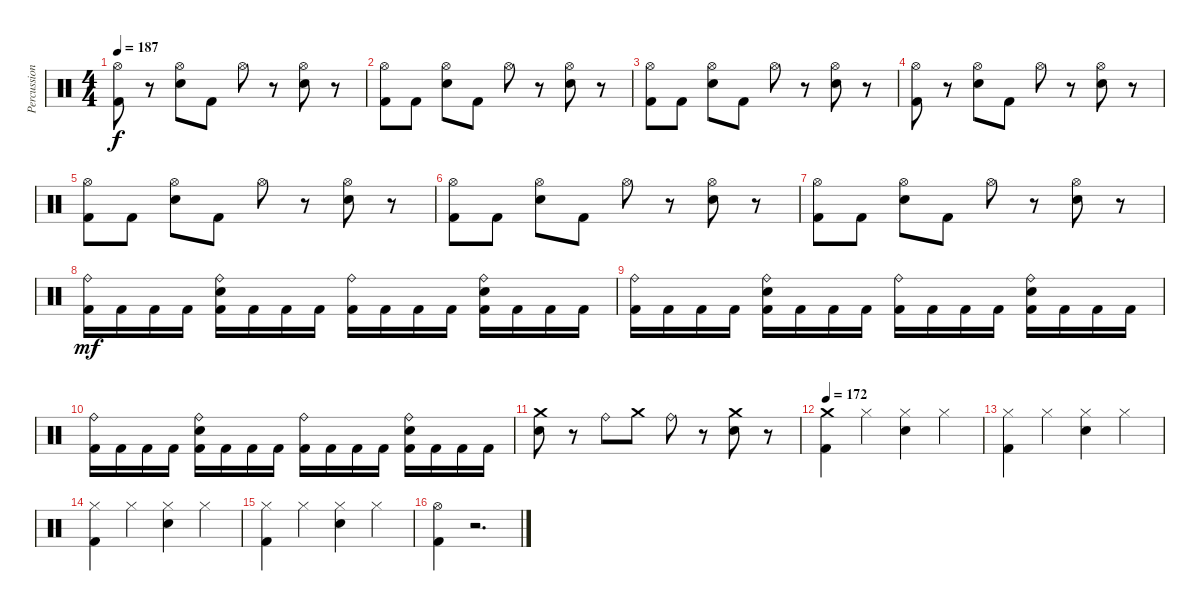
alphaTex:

\track ("Percussion" "Percussion") {instrument percussion}
\staff {score}
\articulation defaults
\ts (4 4)
\tempo 187
\clef neutral
\ks c
("Hi-Hat (open)" "Kick (hit) 2").8{dy f} r.8 ("Hi-Hat (open)" "Electric Snare (hit)").8 "Kick (hit) 2".8 "Hi-Hat (open)".8 r.8 ("Hi-Hat (open)" "Electric Snare (hit)").8 r.8 |
("Hi-Hat (open)" "Kick (hit) 2").8 "Kick (hit) 2".8 ("Hi-Hat (open)" "Electric Snare (hit)").8 "Kick (hit) 2".8 "Hi-Hat (open)".8 r.8 ("Hi-Hat (open)" "Electric Snare (hit)").8 r.8 |
("Hi-Hat (open)" "Kick (hit) 2").8 "Kick (hit) 2".8 ("Hi-Hat (open)" "Electric Snare (hit)").8 "Kick (hit) 2".8 "Hi-Hat (open)".8 r.8 ("Hi-Hat (open)" "Electric Snare (hit)").8 r.8 |
("Hi-Hat (open)" "Kick (hit) 2").8 r.8 ("Hi-Hat (open)" "Electric Snare (hit)").8 "Kick (hit) 2".8 "Hi-Hat (open)".8 r.8 ("Hi-Hat (open)" "Electric Snare (hit)").8 r.8 |
("Hi-Hat (open)" "Kick (hit) 2").8 "Kick (hit) 2".8 ("Hi-Hat (open)" "Electric Snare (hit)").8 "Kick (hit) 2".8 "Hi-Hat (open)".8 r.8 ("Hi-Hat (open)" "Electric Snare (hit)").8 r.8 |
("Hi-Hat (open)" "Kick (hit) 2").8 "Kick (hit) 2".8 ("Hi-Hat (open)" "Electric Snare (hit)").8 "Kick (hit) 2".8 "Hi-Hat (open)".8 r.8 ("Hi-Hat (open)" "Electric Snare (hit)").8 r.8 |
("Hi-Hat (open)" "Kick (hit) 2").8 "Kick (hit) 2".8 ("Hi-Hat (open)" "Electric Snare (hit)").8 "Kick (hit) 2".8 "Hi-Hat (open)".8 r.8 ("Hi-Hat (open)" "Electric Snare (hit)").8 r.8 |
("Ride (bell)" "Kick (hit) 2").16{dy mf} "Kick (hit) 2".16 "Kick (hit) 2".16 "Kick (hit) 2".16 ("Ride (bell)" "Electric Snare (hit)" "Kick (hit) 2").16 "Kick (hit) 2".16 "Kick (hit) 2".16 "Kick (hit) 2".16 ("Ride (bell)" "Kick (hit) 2").16 "Kick (hit) 2".16 "Kick (hit) 2".16 "Kick (hit) 2".16 ("Ride (bell)" "Electric Snare (hit)" "Kick (hit) 2").16 "Kick (hit) 2".16 "Kick (hit) 2".16 "Kick (hit) 2".16 |
("Ride (bell)" "Kick (hit) 2").16 "Kick (hit) 2".16 "Kick (hit) 2".16 "Kick (hit) 2".16 ("Ride (bell)" "Electric Snare (hit)" "Kick (hit) 2").16 "Kick (hit) 2".16 "Kick (hit) 2".16 "Kick (hit) 2".16 ("Ride (bell)" "Kick (hit) 2").16 "Kick (hit) 2".16 "Kick (hit) 2".16 "Kick (hit) 2".16 ("Ride (bell)" "Electric Snare (hit)" "Kick (hit) 2").16 "Kick (hit) 2".16 "Kick (hit) 2".16 "Kick (hit) 2".16 |
("Ride (bell)" "Kick (hit) 2").16 "Kick (hit) 2".16 "Kick (hit) 2".16 "Kick (hit) 2".16 ("Ride (bell)" "Electric Snare (hit)" "Kick (hit) 2").16 "Kick (hit) 2".16 "Kick (hit) 2".16 "Kick (hit) 2".16 ("Ride (bell)" "Kick (hit) 2").16 "Kick (hit) 2".16 "Kick (hit) 2".16 "Kick (hit) 2".16 ("Ride (bell)" "Electric Snare (hit)" "Kick (hit) 2").16 "Kick (hit) 2".16 "Kick (hit) 2".16 "Kick (hit) 2".16 |
("Crash medium (hit)" "Electric Snare (hit)").8 r.8 "Ride (bell)".8 "Crash medium (hit)".8 "Ride (bell)".8 r.8 ("Crash medium (hit)" "Electric Snare (hit)").8 r.8 |
\tempo 172
("Crash medium (hit)" "Kick (hit) 2").4 "Hi-Hat (closed)".4 ("Hi-Hat (closed)" "Electric Snare (hit)").4 "Hi-Hat (closed)".4 |
("Hi-Hat (closed)" "Kick (hit) 2").4 "Hi-Hat (closed)".4 ("Hi-Hat (closed)" "Electric Snare (hit)").4 "Hi-Hat (closed)".4 |
("Hi-Hat (closed)" "Kick (hit) 2").4 "Hi-Hat (closed)".4 ("Hi-Hat (closed)" "Electric Snare (hit)").4 "Hi-Hat (closed)".4 |
("Hi-Hat (closed)" "Kick (hit) 2").4 "Hi-Hat (closed)".4 ("Hi-Hat (closed)" "Electric Snare (hit)").4 "Hi-Hat (closed)".4 |
("Hi-Hat (open)" "Kick (hit) 2").4 r.2{d}
